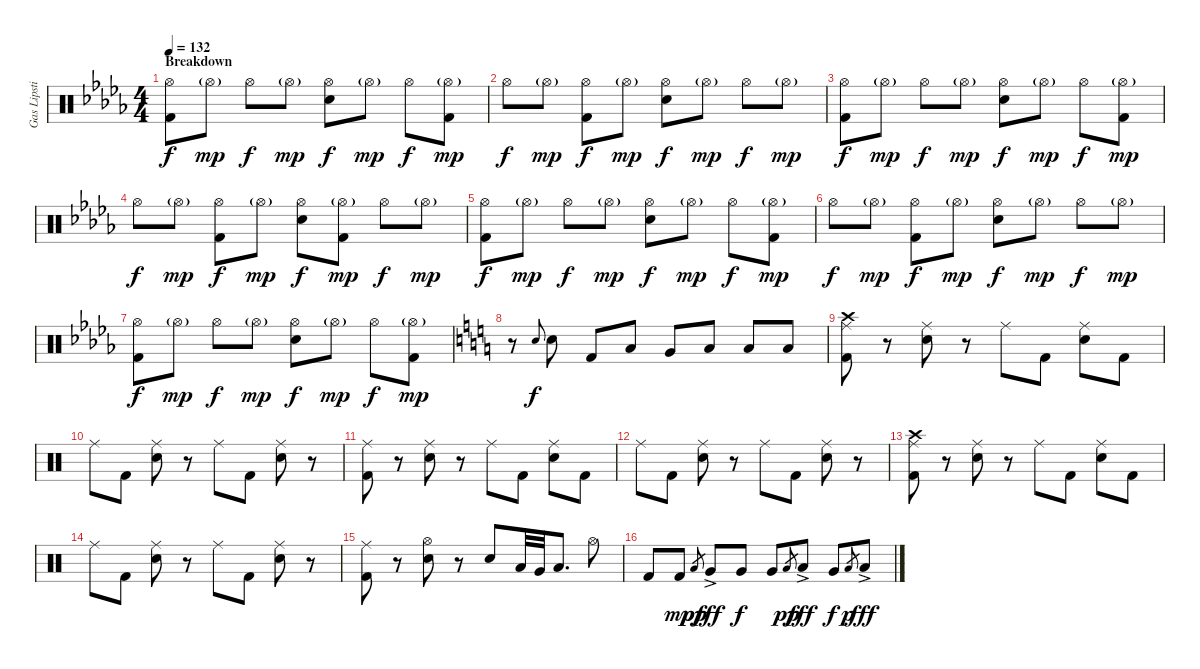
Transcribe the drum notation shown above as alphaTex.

\track ("Gas Lipstick (Drums)" "Gas Lipsti") {instrument percussion}
\staff {score}
\articulation defaults
\ts (4 4)
\section ("" "Breakdown")
\tempo 132
\clef neutral
\ks db
("Hi-Hat (open)" "Kick (hit) 2").8{dy f} "Hi-Hat (open)"{g}.8{dy mp} "Hi-Hat (open)".8{dy f} "Hi-Hat (open)"{g}.8{dy mp} ("Hi-Hat (open)" "Snare (hit) 2").8{dy f} "Hi-Hat (open)"{g}.8{dy mp} "Hi-Hat (open)".8{dy f} ("Hi-Hat (open)"{g} "Kick (hit) 2").8{dy mp} |
"Hi-Hat (open)".8{dy f} "Hi-Hat (open)"{g}.8{dy mp} ("Hi-Hat (open)" "Kick (hit) 2").8{dy f} "Hi-Hat (open)"{g}.8{dy mp} ("Hi-Hat (open)" "Snare (hit) 2").8{dy f} "Hi-Hat (open)"{g}.8{dy mp} "Hi-Hat (open)".8{dy f} "Hi-Hat (open)"{g}.8{dy mp} |
("Hi-Hat (open)" "Kick (hit) 2").8{dy f} "Hi-Hat (open)"{g}.8{dy mp} "Hi-Hat (open)".8{dy f} "Hi-Hat (open)"{g}.8{dy mp} ("Hi-Hat (open)" "Snare (hit) 2").8{dy f} "Hi-Hat (open)"{g}.8{dy mp} "Hi-Hat (open)".8{dy f} ("Hi-Hat (open)"{g} "Kick (hit) 2").8{dy mp} |
"Hi-Hat (open)".8{dy f} "Hi-Hat (open)"{g}.8{dy mp} ("Hi-Hat (open)" "Kick (hit) 2").8{dy f} "Hi-Hat (open)"{g}.8{dy mp} ("Hi-Hat (open)" "Snare (hit) 2").8{dy f} ("Hi-Hat (open)"{g} "Kick (hit) 2").8{dy mp} "Hi-Hat (open)".8{dy f} "Hi-Hat (open)"{g}.8{dy mp} |
("Hi-Hat (open)" "Kick (hit) 2").8{dy f} "Hi-Hat (open)"{g}.8{dy mp} "Hi-Hat (open)".8{dy f} "Hi-Hat (open)"{g}.8{dy mp} ("Hi-Hat (open)" "Snare (hit) 2").8{dy f} "Hi-Hat (open)"{g}.8{dy mp} "Hi-Hat (open)".8{dy f} ("Hi-Hat (open)"{g} "Kick (hit) 2").8{dy mp} |
"Hi-Hat (open)".8{dy f} "Hi-Hat (open)"{g}.8{dy mp} ("Hi-Hat (open)" "Kick (hit) 2").8{dy f} "Hi-Hat (open)"{g}.8{dy mp} ("Hi-Hat (open)" "Snare (hit) 2").8{dy f} "Hi-Hat (open)"{g}.8{dy mp} "Hi-Hat (open)".8{dy f} "Hi-Hat (open)"{g}.8{dy mp} |
("Hi-Hat (open)" "Kick (hit) 2").8{dy f} "Hi-Hat (open)"{g}.8{dy mp} "Hi-Hat (open)".8{dy f} "Hi-Hat (open)"{g}.8{dy mp} ("Hi-Hat (open)" "Snare (hit) 2").8{dy f} "Hi-Hat (open)"{g}.8{dy mp} "Hi-Hat (open)".8{dy f} ("Hi-Hat (open)"{g} "Kick (hit) 2").8{dy mp} |
\ks c
r.8 "Snare (hit) 2".8{gr onbeat dy f} "Snare (hit) 2".8 "Kick (hit) 2".8 "Low Floor Tom (hit)".8 "Very Low Tom (hit)".8 "Low Floor Tom (hit)".8 "Low Tom (hit)".8 "Low Floor Tom (hit)".8 |
("Crash high (hit)" "Ride (middle)" "Kick (hit) 2").8 r.8 ("Ride (middle)" "Snare (hit) 2").8 r.8 "Ride (middle)".8 "Kick (hit) 2".8 ("Ride (middle)" "Snare (hit) 2").8 "Kick (hit) 2".8 |
"Ride (middle)".8 "Kick (hit) 2".8 ("Ride (middle)" "Snare (hit) 2").8 r.8 "Ride (middle)".8 "Kick (hit) 2".8 ("Ride (middle)" "Snare (hit) 2").8 r.8 |
("Ride (middle)" "Kick (hit) 2").8 r.8 ("Ride (middle)" "Snare (hit) 2").8 r.8 "Ride (middle)".8 "Kick (hit) 2".8 ("Ride (middle)" "Snare (hit) 2").8 "Kick (hit) 2".8 |
"Ride (middle)".8 "Kick (hit) 2".8 ("Ride (middle)" "Snare (hit) 2").8 r.8 "Ride (middle)".8 "Kick (hit) 2".8 ("Ride (middle)" "Snare (hit) 2").8 r.8 |
("Crash high (hit)" "Ride (middle)" "Kick (hit) 2").8 r.8 ("Ride (middle)" "Snare (hit) 2").8 r.8 "Ride (middle)".8 "Kick (hit) 2".8 ("Ride (middle)" "Snare (hit) 2").8 "Kick (hit) 2".8 |
"Ride (middle)".8 "Kick (hit) 2".8 ("Ride (middle)" "Snare (hit) 2").8 r.8 "Ride (middle)".8 "Kick (hit) 2".8 ("Ride (middle)" "Snare (hit) 2").8 r.8 |
("Ride (middle)" "Kick (hit) 2").8 r.8 ("Hi-Hat (open)" "Snare (hit) 2").8 r.8 "Snare (hit) 2".8 "Low Tom (hit)".32 "Very Low Tom (hit)".32 "Low Floor Tom (hit)".8{d} "Hi-Hat (open)".8 |
"Kick (hit) 2".8 "Kick (hit) 2".8{dy mp} "Low Tom (hit)".8{gr dy pp} "Very Low Tom (hit)"{ac}.8{dy fff} "Very Low Tom (hit)".8{dy f} "Very Low Tom (hit)".8 "Low Tom (hit)".8{gr dy pp} "Low Tom (hit)"{ac}.8{dy fff} "Very Low Tom (hit)".8{dy f} "Low Tom (hit)".8{gr dy p} "Low Tom (hit)"{ac}.8{dy fff}
